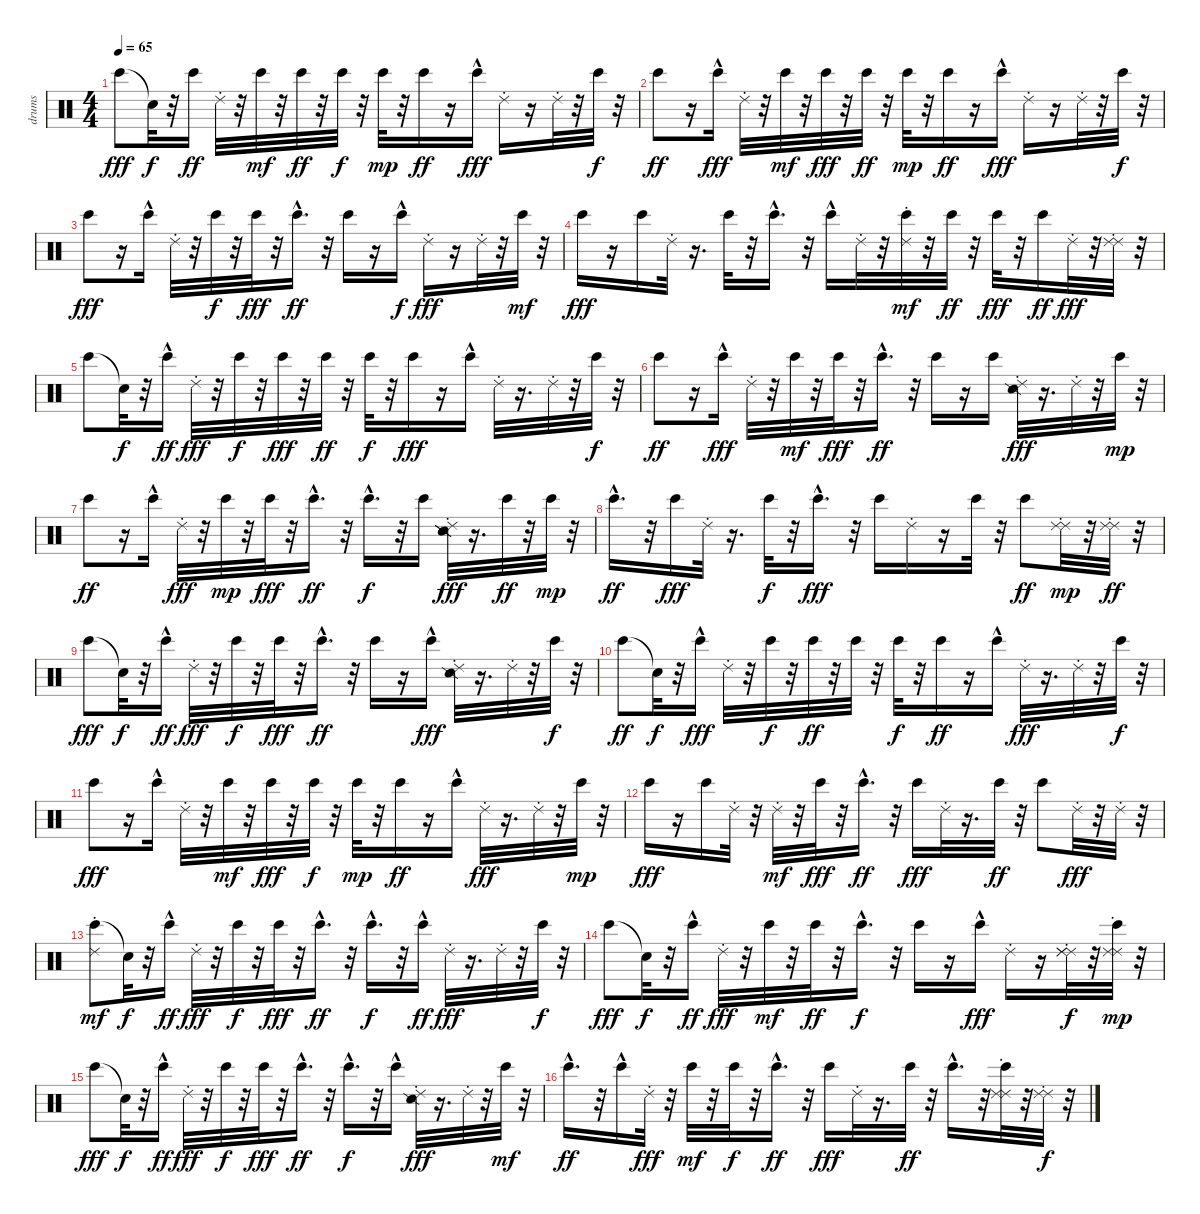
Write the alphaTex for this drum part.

\track ("drums" "drums") {instrument percussion}
\staff {score}
\articulation defaults
\ts (4 4)
\tempo 65
\clef neutral
\ks c "Bongo High (hit)".8{dy fff} "Snare (hit)"{t}.32{dy f}
r.32 "Bongo High (hit)".16{dy ff} "Ride (choke) 2".32 r.32 "Bongo High (hit)".32{dy mf} r.32 "Bongo High (hit)".32{dy ff} r.32 "Bongo High (hit)".32{dy f} r.32 "Bongo High (hit)".32{dy mp} r.32 "Bongo High (hit)".16{dy ff} r.16 "Bongo High (hit)"{hac}.16{dy fff} "Ride (choke) 2".16 r.16 "Ride (choke) 2".32 r.32 "Bongo High (hit)".32{dy f} r.32 |
"Bongo High (hit)".8{dy ff} r.16 "Bongo High (hit)"{hac}.16{dy fff} "Ride (choke) 2".32 r.32 "Bongo High (hit)".32{dy mf} r.32 "Bongo High (hit)".32{dy fff} r.32 "Bongo High (hit)".32{dy ff} r.32 "Bongo High (hit)".32{dy mp} r.32 "Bongo High (hit)".16{dy ff} r.16 "Bongo High (hit)"{hac}.16{dy fff} "Ride (choke) 2".16 r.16 "Ride (choke) 2".32 r.32 "Bongo High (hit)".32{dy f} r.32 |
"Bongo High (hit)".8{dy fff} r.16 "Bongo High (hit)"{hac}.16 "Ride (choke) 2".32 r.32 "Bongo High (hit)".32{dy f} r.32 "Bongo High (hit)".32{dy fff} r.32 "Bongo High (hit)"{hac}.16{d dy ff} r.32 "Bongo High (hit)".16 r.16 "Bongo High (hit)"{hac}.16{dy f} "Ride (choke) 2".16{dy fff} r.16 "Ride (choke) 2".32 r.32 "Bongo High (hit)".32{dy mf} r.32 |
"Bongo High (hit)".16{dy fff} r.16 "Bongo High (hit)".16 "Ride (choke) 2".32 r.16{d} "Bongo High (hit)".32 r.32 "Bongo High (hit)"{hac}.16{d} r.32 "Bongo High (hit)"{hac}.16 "Ride (choke) 2".32 r.32 ("Ride (choke) 2" "Bongo High (hit)").32{dy mf} r.32 "Bongo High (hit)".32{dy ff} r.32 "Bongo High (hit)".32{dy fff} r.32 "Bongo High (hit)".16{dy ff} "Ride (choke) 2".32{dy fff} r.32 ("Ride (choke) 2" "Ride (choke) 2").32 r.32 |
"Bongo High (hit)".8 "Snare (hit)"{t}.32{dy f} r.32 "Bongo High (hit)"{hac}.16{dy ff} "Ride (choke) 2".32{dy fff} r.32 "Bongo High (hit)".32{dy f} r.32 "Bongo High (hit)".32{dy fff} r.32 "Bongo High (hit)".32{dy ff} r.32 "Bongo High (hit)".32{dy f} r.32 "Bongo High (hit)".16{dy fff} r.16 "Bongo High (hit)"{hac}.16 "Ride (choke) 2".32 r.16{d} "Ride (choke) 2".32 r.32 "Bongo High (hit)".32{dy f} r.32 |
"Bongo High (hit)".8{dy ff} r.16 "Bongo High (hit)"{hac}.16{dy fff} "Ride (choke) 2".32 r.32 "Bongo High (hit)".32{dy mf} r.32 "Bongo High (hit)".32{dy fff} r.32 "Bongo High (hit)"{hac}.16{d dy ff} r.32 "Bongo High (hit)".16 r.16 "Bongo High (hit)".16 ("Snare (side stick) 2" "Ride (choke) 2").32{dy fff} r.16{d} "Ride (choke) 2".32 r.32 "Bongo High (hit)".32{dy mp} r.32 |
"Bongo High (hit)".8{dy ff} r.16 "Bongo High (hit)"{hac}.16 "Ride (choke) 2".32{dy fff} r.32 "Bongo High (hit)".32{dy mp} r.32 "Bongo High (hit)".32{dy fff} r.32 "Bongo High (hit)"{hac}.16{d dy ff} r.32 "Bongo High (hit)"{hac}.16{d dy f} r.32 "Bongo High (hit)".16 ("Snare (side stick) 2" "Snare (side stick) 2" "Ride (choke) 2").32{dy fff} r.16{d} "Bongo High (hit)".32{dy ff} r.32 "Bongo High (hit)".32{dy mp} r.32 |
"Bongo High (hit)"{hac}.16{d dy ff} r.32 "Bongo High (hit)".16{dy fff} "Ride (choke) 2".32 r.16{d} "Bongo High (hit)".32{dy f} r.32 "Bongo High (hit)"{hac}.16{d dy fff} r.32 "Bongo High (hit)".16 "Ride (choke) 2".16 r.16 "Bongo High (hit)".32 r.32 "Bongo High (hit)".8{dy ff} ("Ride (choke) 2" "Ride (choke) 2").32{dy mp} r.32 ("Ride (choke) 2" "Ride (choke) 2").32{dy ff} r.32 |
"Bongo High (hit)".8{dy fff} "Snare (hit)"{t}.32{dy f} r.32 "Bongo High (hit)"{hac}.16{dy ff} "Ride (choke) 2".32{dy fff} r.32 "Bongo High (hit)".32{dy f} r.32 "Bongo High (hit)".32{dy fff} r.32 "Bongo High (hit)"{hac}.16{d dy ff} r.32 "Bongo High (hit)".16 r.16 "Bongo High (hit)"{hac}.16{dy fff} ("Ride (choke) 2" "Snare (side stick) 2").32 r.16{d} "Ride (choke) 2".32 r.32 "Bongo High (hit)".32{dy f} r.32 |
"Bongo High (hit)".8{dy ff} "Snare (hit)"{t}.32{dy f} r.32 "Bongo High (hit)"{hac}.16{dy fff} "Ride (choke) 2".32 r.32 "Bongo High (hit)".32{dy f} r.32 "Bongo High (hit)".32{dy ff} r.32 "Bongo High (hit)".32 r.32 "Bongo High (hit)".32{dy f} r.32 "Bongo High (hit)".16{dy ff} r.16 "Bongo High (hit)"{hac}.16 "Ride (choke) 2".32{dy fff} r.16{d} "Ride (choke) 2".32 r.32 "Bongo High (hit)".32{dy f} r.32 |
"Bongo High (hit)".8{dy fff} r.16 "Bongo High (hit)"{hac}.16 "Ride (choke) 2".32 r.32 "Bongo High (hit)".32{dy mf} r.32 "Bongo High (hit)".32{dy fff} r.32 "Bongo High (hit)".32{dy f} r.32 "Bongo High (hit)".32{dy mp} r.32 "Bongo High (hit)".16{dy ff} r.16 "Bongo High (hit)"{hac}.16 "Ride (choke) 2".32{dy fff} r.16{d} "Ride (choke) 2".32 r.32 "Bongo High (hit)".32{dy mp} r.32 |
"Bongo High (hit)".16{dy fff} r.16 "Bongo High (hit)".16 "Ride (choke) 2".32 r.32 "Ride (choke) 2".32{dy mf} r.32 "Bongo High (hit)".32{dy fff} r.32 "Bongo High (hit)"{hac}.16{d dy ff} r.32 "Bongo High (hit)".16{dy fff} "Ride (choke) 2".32 r.16{d} "Bongo High (hit)".32{dy ff} r.32 "Bongo High (hit)".8 "Ride (choke) 2".32{dy fff} r.32 "Ride (choke) 2".32 r.32 |
("Bongo High (hit)" "Ride (choke) 2").8{dy mf} "Snare (hit)"{t}.32{dy f} r.32 "Bongo High (hit)"{hac}.16{dy ff} "Ride (choke) 2".32{dy fff} r.32 "Bongo High (hit)".32{dy f} r.32 "Bongo High (hit)".32{dy fff} r.32 "Bongo High (hit)"{hac}.16{d dy ff} r.32 "Bongo High (hit)"{hac}.16{d dy f} r.32 "Bongo High (hit)"{hac}.16{dy ff} "Ride (choke) 2".32{dy fff} r.16{d} "Ride (choke) 2".32 r.32 "Bongo High (hit)".32{dy f} r.32 |
"Bongo High (hit)".8{dy fff} "Snare (hit)"{t}.32{dy f} r.32 "Bongo High (hit)"{hac}.16{dy ff} "Ride (choke) 2".32{dy fff} r.32 "Bongo High (hit)".32{dy mf} r.32 "Bongo High (hit)".32{dy ff} r.32 "Bongo High (hit)"{hac}.16{d dy f} r.32 "Bongo High (hit)".16 r.16 "Bongo High (hit)"{hac}.16{dy fff} "Ride (choke) 2".16 r.16 ("Ride (choke) 2" "Ride (choke) 2" "Ride (choke) 2").32{dy f} r.32 ("Bongo High (hit)" "Ride (choke) 2" "Ride (choke) 2").32{dy mp} r.32 |
"Bongo High (hit)".8{dy fff} "Snare (hit)"{t}.32{dy f} r.32 "Bongo High (hit)"{hac}.16{dy ff} "Ride (choke) 2".32{dy fff} r.32 "Bongo High (hit)".32{dy f} r.32 "Bongo High (hit)".32{dy fff} r.32 "Bongo High (hit)"{hac}.16{d dy ff} r.32 "Bongo High (hit)"{hac}.16{d dy f} r.32 "Bongo High (hit)"{hac}.16 ("Snare (side stick) 2" "Ride (choke) 2").32{dy fff} r.16{d} "Ride (choke) 2".32 r.32 "Bongo High (hit)".32{dy mf} r.32 |
"Bongo High (hit)"{hac}.16{d dy ff} r.32 "Bongo High (hit)"{hac}.16 "Ride (choke) 2".32{dy fff} r.32 "Bongo High (hit)".32{dy mf} r.32 "Bongo High (hit)".32{dy f} r.32 "Bongo High (hit)"{hac}.16{d dy ff} r.32 "Bongo High (hit)".16{dy fff} "Ride (choke) 2".32 r.16{d} "Bongo High (hit)".32{dy ff} r.32 "Bongo High (hit)"{hac}.16{d} r.32 ("Ride (choke) 2" "Ride (choke) 2" "Bongo High (hit)").32 r.32 ("Ride (choke) 2" "Ride (choke) 2").32{dy f} r.32
